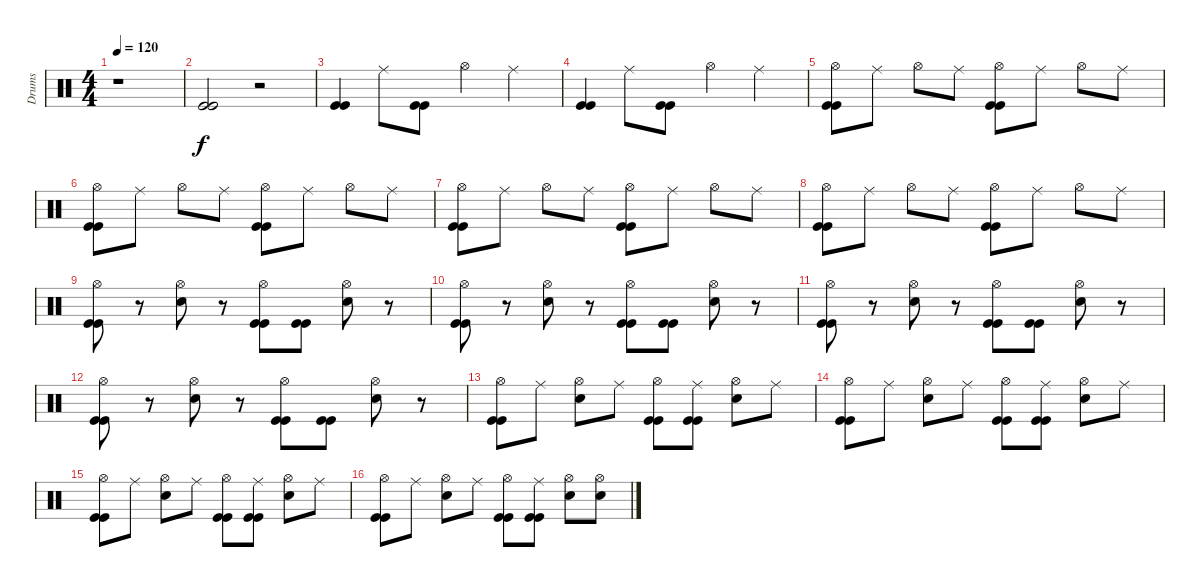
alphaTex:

\track ("Drums" "Drums") {instrument percussion}
\staff {score}
\articulation defaults
\ts (4 4)
\tempo 120
\clef neutral
\ks c
r.1{dy f} |
("Kick (hit)" "Kick (hit)").2 r.2 |
("Kick (hit)" "Kick (hit)").4 "Ride (middle)".8 ("Kick (hit)" "Kick (hit)").8 "Hi-Hat (open)".4 "Ride (middle)".4 |
("Kick (hit)" "Kick (hit)").4 "Ride (middle)".8 ("Kick (hit)" "Kick (hit)").8 "Hi-Hat (open)".4 "Ride (middle)".4 |
("Hi-Hat (open)" "Kick (hit)" "Kick (hit)").8 "Ride (middle)".8 "Hi-Hat (open)".8 "Ride (middle)".8 ("Hi-Hat (open)" "Kick (hit)" "Kick (hit)").8 "Ride (middle)".8 "Hi-Hat (open)".8 "Ride (middle)".8 |
("Hi-Hat (open)" "Kick (hit)" "Kick (hit)").8 "Ride (middle)".8 "Hi-Hat (open)".8 "Ride (middle)".8 ("Hi-Hat (open)" "Kick (hit)" "Kick (hit)").8 "Ride (middle)".8 "Hi-Hat (open)".8 "Ride (middle)".8 |
("Hi-Hat (open)" "Kick (hit)" "Kick (hit)").8 "Ride (middle)".8 "Hi-Hat (open)".8 "Ride (middle)".8 ("Hi-Hat (open)" "Kick (hit)" "Kick (hit)").8 "Ride (middle)".8 "Hi-Hat (open)".8 "Ride (middle)".8 |
("Hi-Hat (open)" "Kick (hit)" "Kick (hit)").8 "Ride (middle)".8 "Hi-Hat (open)".8 "Ride (middle)".8 ("Hi-Hat (open)" "Kick (hit)" "Kick (hit)").8 "Ride (middle)".8 "Hi-Hat (open)".8 "Ride (middle)".8 |
("Hi-Hat (open)" "Kick (hit)" "Kick (hit)").8 r.8 ("Hi-Hat (open)" "Electric Snare (hit)").8 r.8 ("Hi-Hat (open)" "Kick (hit)" "Kick (hit)").8 ("Kick (hit)" "Kick (hit)").8 ("Hi-Hat (open)" "Electric Snare (hit)").8 r.8 |
("Hi-Hat (open)" "Kick (hit)" "Kick (hit)").8 r.8 ("Hi-Hat (open)" "Electric Snare (hit)").8 r.8 ("Hi-Hat (open)" "Kick (hit)" "Kick (hit)").8 ("Kick (hit)" "Kick (hit)").8 ("Hi-Hat (open)" "Electric Snare (hit)").8 r.8 |
("Hi-Hat (open)" "Kick (hit)" "Kick (hit)").8 r.8 ("Hi-Hat (open)" "Electric Snare (hit)").8 r.8 ("Hi-Hat (open)" "Kick (hit)" "Kick (hit)").8 ("Kick (hit)" "Kick (hit)").8 ("Hi-Hat (open)" "Electric Snare (hit)").8 r.8 |
("Hi-Hat (open)" "Kick (hit)" "Kick (hit)").8 r.8 ("Hi-Hat (open)" "Electric Snare (hit)").8 r.8 ("Hi-Hat (open)" "Kick (hit)" "Kick (hit)").8 ("Kick (hit)" "Kick (hit)").8 ("Hi-Hat (open)" "Electric Snare (hit)").8 r.8 |
("Hi-Hat (open)" "Kick (hit)" "Kick (hit)").8 "Ride (middle)".8 ("Hi-Hat (open)" "Electric Snare (hit)").8 "Ride (middle)".8 ("Hi-Hat (open)" "Kick (hit)" "Kick (hit)").8 ("Ride (middle)" "Kick (hit)" "Kick (hit)").8 ("Hi-Hat (open)" "Electric Snare (hit)").8 "Ride (middle)".8 |
("Hi-Hat (open)" "Kick (hit)" "Kick (hit)").8 "Ride (middle)".8 ("Hi-Hat (open)" "Electric Snare (hit)").8 "Ride (middle)".8 ("Hi-Hat (open)" "Kick (hit)" "Kick (hit)").8 ("Ride (middle)" "Kick (hit)" "Kick (hit)").8 ("Hi-Hat (open)" "Electric Snare (hit)").8 "Ride (middle)".8 |
("Hi-Hat (open)" "Kick (hit)" "Kick (hit)").8 "Ride (middle)".8 ("Hi-Hat (open)" "Electric Snare (hit)").8 "Ride (middle)".8 ("Hi-Hat (open)" "Kick (hit)" "Kick (hit)").8 ("Ride (middle)" "Kick (hit)" "Kick (hit)").8 ("Hi-Hat (open)" "Electric Snare (hit)").8 "Ride (middle)".8 |
("Hi-Hat (open)" "Kick (hit)" "Kick (hit)").8 "Ride (middle)".8 ("Hi-Hat (open)" "Electric Snare (hit)").8 "Ride (middle)".8 ("Hi-Hat (open)" "Kick (hit)" "Kick (hit)").8 ("Ride (middle)" "Kick (hit)" "Kick (hit)").8 ("Hi-Hat (open)" "Electric Snare (hit)").8 ("Hi-Hat (open)" "Electric Snare (hit)").8
